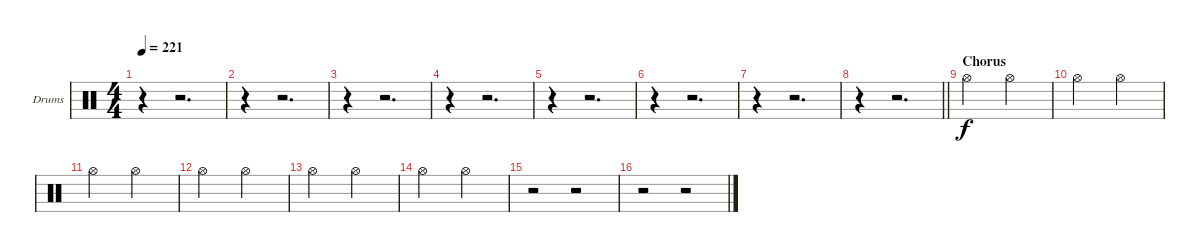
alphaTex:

\bracketExtendMode groupsimilarinstruments
\firstSystemTrackNameOrientation horizontal
\otherSystemsTrackNameOrientation horizontal
\track ("Drumkit" "Drums") {instrument percussion}
\staff {score}
\articulation defaults
\ts (4 4)
\tempo 221
\clef neutral
\ks c
r.4{dy f} r.2{d} |
r.4 r.2{d} |
r.4 r.2{d} |
r.4 r.2{d} |
r.4 r.2{d} |
r.4 r.2{d} |
r.4 r.2{d} |
\barLineRight lightlight
r.4 r.2{d} |
\section ("" "Chorus")
"Hi-Hat (open)".2 "Hi-Hat (open)".2 |
"Hi-Hat (open)".2 "Hi-Hat (open)".2 |
"Hi-Hat (open)".2 "Hi-Hat (open)".2 |
"Hi-Hat (open)".2 "Hi-Hat (open)".2 |
"Hi-Hat (open)".2 "Hi-Hat (open)".2 |
"Hi-Hat (open)".2 "Hi-Hat (open)".2 |
r.2 r.2 |
r.2 r.2
